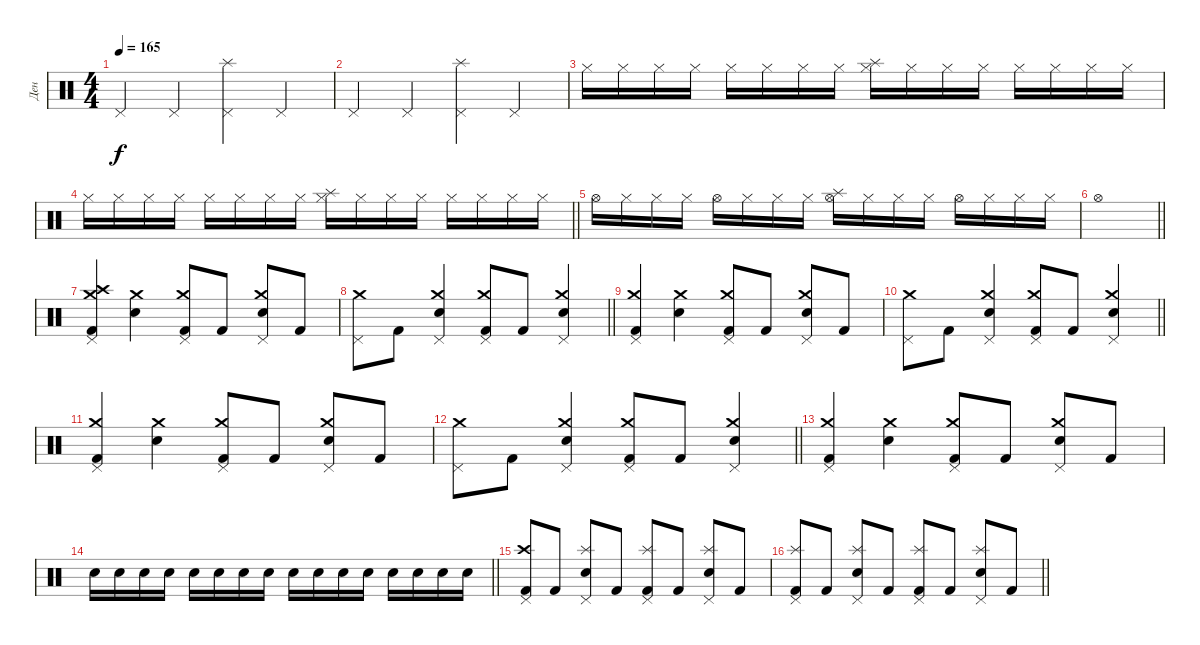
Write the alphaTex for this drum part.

\track ("Ден" "Ден") {instrument percussion}
\staff {score}
\articulation defaults
\ts (4 4)
\tempo 165
\clef neutral
\ks c "Pedal Hi-Hat (hit)".4{dy f} "Pedal Hi-Hat (hit)".4
("Splash (hit)" "Pedal Hi-Hat (hit)").4 "Pedal Hi-Hat (hit)".4 |
"Pedal Hi-Hat (hit)".4 "Pedal Hi-Hat (hit)".4 ("Splash (hit)" "Pedal Hi-Hat (hit)").4 "Pedal Hi-Hat (hit)".4 |
"Hi-Hat (closed)".16 "Hi-Hat (closed)".16 "Hi-Hat (closed)".16 "Hi-Hat (closed)".16 "Hi-Hat (closed)".16 "Hi-Hat (closed)".16 "Hi-Hat (closed)".16 "Hi-Hat (closed)".16 ("Hi-Hat (closed)" "Splash (hit)").16 "Hi-Hat (closed)".16 "Hi-Hat (closed)".16 "Hi-Hat (closed)".16 "Hi-Hat (closed)".16 "Hi-Hat (closed)".16 "Hi-Hat (closed)".16 "Hi-Hat (closed)".16 |
\barLineRight lightlight "Hi-Hat (closed)".16 "Hi-Hat (closed)".16 "Hi-Hat (closed)".16 "Hi-Hat (closed)".16 "Hi-Hat (closed)".16 "Hi-Hat (closed)".16 "Hi-Hat (closed)".16 "Hi-Hat (closed)".16
("Hi-Hat (closed)" "Splash (hit)").16 "Hi-Hat (closed)".16 "Hi-Hat (closed)".16 "Hi-Hat (closed)".16 "Hi-Hat (closed)".16 "Hi-Hat (closed)".16 "Hi-Hat (closed)".16 "Hi-Hat (closed)".16 |
"Hi-Hat (open)".16 "Hi-Hat (closed)".16 "Hi-Hat (closed)".16 "Hi-Hat (closed)".16 "Hi-Hat (open)".16 "Hi-Hat (closed)".16 "Hi-Hat (closed)".16 "Hi-Hat (closed)".16 ("Hi-Hat (open)" "Splash (hit)").16 "Hi-Hat (closed)".16 "Hi-Hat (closed)".16 "Hi-Hat (closed)".16 "Hi-Hat (open)".16 "Hi-Hat (closed)".16 "Hi-Hat (closed)".16 "Hi-Hat (closed)".16 |
\barLineRight lightlight "Hi-Hat (open)".1
|
("Crash high (hit)" "Crash medium (hit)" "Kick (hit) 2" "Pedal Hi-Hat (hit)").4 ("Crash medium (hit)" "Snare (hit) 2").4 ("Crash medium (hit)" "Kick (hit) 2" "Pedal Hi-Hat (hit)").8 "Kick (hit) 2".8 ("Crash medium (hit)" "Snare (hit) 2" "Pedal Hi-Hat (hit)").8 "Kick (hit) 2".8 |
\barLineRight lightlight
("Crash medium (hit)" "Pedal Hi-Hat (hit)").8 "Kick (hit) 2".8 ("Crash medium (hit)" "Snare (hit) 2" "Pedal Hi-Hat (hit)").4 ("Crash medium (hit)" "Kick (hit) 2" "Pedal Hi-Hat (hit)").8 "Kick (hit) 2".8 ("Crash medium (hit)" "Snare (hit) 2" "Pedal Hi-Hat (hit)").4 |
("Crash medium (hit)" "Kick (hit) 2" "Pedal Hi-Hat (hit)").4 ("Crash medium (hit)" "Snare (hit) 2").4 ("Crash medium (hit)" "Kick (hit) 2" "Pedal Hi-Hat (hit)").8 "Kick (hit) 2".8 ("Crash medium (hit)" "Snare (hit) 2" "Pedal Hi-Hat (hit)").8 "Kick (hit) 2".8 |
\barLineRight lightlight
("Crash medium (hit)" "Pedal Hi-Hat (hit)").8 "Kick (hit) 2".8 ("Crash medium (hit)" "Snare (hit) 2" "Pedal Hi-Hat (hit)").4 ("Crash medium (hit)" "Kick (hit) 2" "Pedal Hi-Hat (hit)").8 "Kick (hit) 2".8 ("Crash medium (hit)" "Snare (hit) 2" "Pedal Hi-Hat (hit)").4 |
("Crash medium (hit)" "Kick (hit) 2" "Pedal Hi-Hat (hit)").4 ("Crash medium (hit)" "Snare (hit) 2").4 ("Crash medium (hit)" "Kick (hit) 2" "Pedal Hi-Hat (hit)").8 "Kick (hit) 2".8 ("Crash medium (hit)" "Snare (hit) 2" "Pedal Hi-Hat (hit)").8 "Kick (hit) 2".8 |
\barLineRight lightlight
("Crash medium (hit)" "Pedal Hi-Hat (hit)").8 "Kick (hit) 2".8 ("Crash medium (hit)" "Snare (hit) 2" "Pedal Hi-Hat (hit)").4 ("Crash medium (hit)" "Kick (hit) 2" "Pedal Hi-Hat (hit)").8 "Kick (hit) 2".8 ("Crash medium (hit)" "Snare (hit) 2" "Pedal Hi-Hat (hit)").4 |
("Crash medium (hit)" "Kick (hit) 2" "Pedal Hi-Hat (hit)").4 ("Crash medium (hit)" "Snare (hit) 2").4 ("Crash medium (hit)" "Kick (hit) 2" "Pedal Hi-Hat (hit)").8 "Kick (hit) 2".8 ("Crash medium (hit)" "Snare (hit) 2" "Pedal Hi-Hat (hit)").8 "Kick (hit) 2".8 |
\barLineRight lightlight "Snare (hit) 2".16 "Snare (hit) 2".16 "Snare (hit) 2".16 "Snare (hit) 2".16 "Snare (hit) 2".16 "Snare (hit) 2".16 "Snare (hit) 2".16 "Snare (hit) 2".16 "Snare (hit) 2".16 "Snare (hit) 2".16 "Snare (hit) 2".16 "Snare (hit) 2".16 "Snare (hit) 2".16 "Snare (hit) 2".16 "Snare (hit) 2".16 "Snare (hit) 2".16
|
("Crash high (hit)" "Kick (hit) 2" "Pedal Hi-Hat (hit)").8 "Kick (hit) 2".8 ("Splash (hit)" "Snare (hit) 2" "Pedal Hi-Hat (hit)").8 "Kick (hit) 2".8 ("Splash (hit)" "Kick (hit) 2" "Pedal Hi-Hat (hit)").8 "Kick (hit) 2".8 ("Splash (hit)" "Snare (hit) 2" "Pedal Hi-Hat (hit)").8 "Kick (hit) 2".8 |
\barLineRight lightlight
("Splash (hit)" "Kick (hit) 2" "Pedal Hi-Hat (hit)").8 "Kick (hit) 2".8 ("Splash (hit)" "Snare (hit) 2" "Pedal Hi-Hat (hit)").8 "Kick (hit) 2".8 ("Splash (hit)" "Kick (hit) 2" "Pedal Hi-Hat (hit)").8 "Kick (hit) 2".8 ("Splash (hit)" "Snare (hit) 2" "Pedal Hi-Hat (hit)").8 "Kick (hit) 2".8
